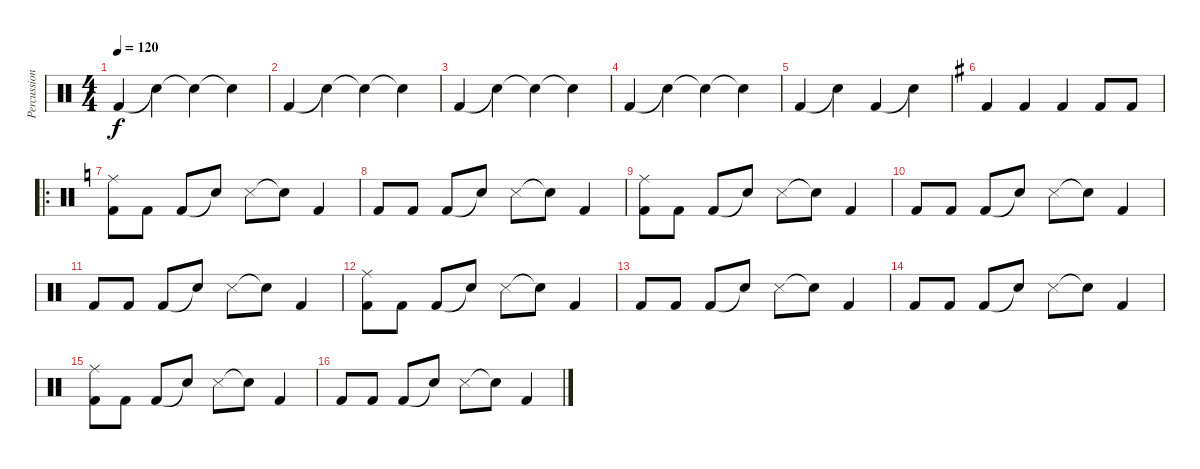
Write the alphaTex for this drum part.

\track ("Percussion" "Percussion") {instrument percussion}
\staff {score}
\articulation defaults
\ts (4 4)
\tempo 120
\clef neutral
\ks c "Kick (hit) 2".4{dy f} "Snare (hit)"{t}.4 "Snare (hit)"{t}.4 "Snare (hit)"{t}.4
|
"Kick (hit) 2".4 "Snare (hit)"{t}.4 "Snare (hit)"{t}.4 "Snare (hit)"{t}.4 |
"Kick (hit) 2".4 "Snare (hit)"{t}.4 "Snare (hit)"{t}.4 "Snare (hit)"{t}.4 |
"Kick (hit) 2".4 "Snare (hit)"{t}.4 "Snare (hit)"{t}.4 "Snare (hit)"{t}.4 |
"Kick (hit) 2".4 "Snare (hit)"{t}.4 "Kick (hit) 2".4 "Snare (hit)"{t}.4 |
\ks g "Kick (hit) 2".4 "Kick (hit) 2".4 "Kick (hit) 2".4 "Kick (hit) 2".8 "Kick (hit) 2".8
|
\ro
\ks c
("Ride (middle)" "Kick (hit) 2").8 "Kick (hit) 2".8 "Kick (hit) 2".8 "Snare (hit)"{t}.8 "Snare (side stick) 3".8 "Snare (hit)"{t}.8 "Kick (hit) 2".4 |
"Kick (hit) 2".8 "Kick (hit) 2".8 "Kick (hit) 2".8 "Snare (hit)"{t}.8 "Snare (side stick) 3".8 "Snare (hit)"{t}.8 "Kick (hit) 2".4 |
("Ride (middle)" "Kick (hit) 2").8 "Kick (hit) 2".8 "Kick (hit) 2".8 "Snare (hit)"{t}.8 "Snare (side stick) 3".8 "Snare (hit)"{t}.8 "Kick (hit) 2".4 |
"Kick (hit) 2".8 "Kick (hit) 2".8 "Kick (hit) 2".8 "Snare (hit)"{t}.8 "Snare (side stick) 3".8 "Snare (hit)"{t}.8 "Kick (hit) 2".4 |
"Kick (hit) 2".8 "Kick (hit) 2".8 "Kick (hit) 2".8 "Snare (hit)"{t}.8 "Snare (side stick) 3".8 "Snare (hit)"{t}.8 "Kick (hit) 2".4 |
("Ride (middle)" "Kick (hit) 2").8 "Kick (hit) 2".8 "Kick (hit) 2".8 "Snare (hit)"{t}.8 "Snare (side stick) 3".8 "Snare (hit)"{t}.8 "Kick (hit) 2".4 |
"Kick (hit) 2".8 "Kick (hit) 2".8 "Kick (hit) 2".8 "Snare (hit)"{t}.8 "Snare (side stick) 3".8 "Snare (hit)"{t}.8 "Kick (hit) 2".4 |
"Kick (hit) 2".8 "Kick (hit) 2".8 "Kick (hit) 2".8 "Snare (hit)"{t}.8 "Snare (side stick) 3".8 "Snare (hit)"{t}.8 "Kick (hit) 2".4 |
("Ride (middle)" "Kick (hit) 2").8 "Kick (hit) 2".8 "Kick (hit) 2".8 "Snare (hit)"{t}.8 "Snare (side stick) 3".8 "Snare (hit)"{t}.8 "Kick (hit) 2".4 |
"Kick (hit) 2".8 "Kick (hit) 2".8 "Kick (hit) 2".8 "Snare (hit)"{t}.8 "Snare (side stick) 3".8 "Snare (hit)"{t}.8 "Kick (hit) 2".4
